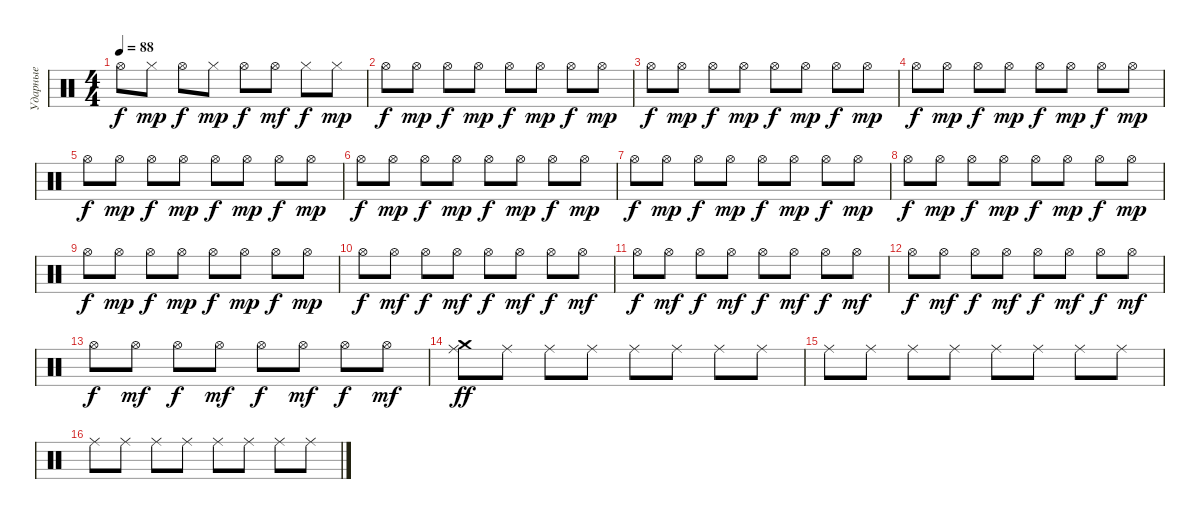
\track ("Ударные" "Ударные") {instrument percussion}
\staff {score}
\articulation defaults
\ts (4 4)
\tempo 88
\clef neutral
\ks c "Hi-Hat (open)".8{dy f} "Hi-Hat (closed)".8{dy mp} "Hi-Hat (open)".8{dy f} "Hi-Hat (closed)".8{dy mp} "Hi-Hat (open)".8{dy f} "Hi-Hat (open)".8{dy mf} "Hi-Hat (closed)".8{dy f} "Hi-Hat (closed)".8{dy mp}
|
"Hi-Hat (open)".8{dy f} "Hi-Hat (open)".8{dy mp} "Hi-Hat (open)".8{dy f} "Hi-Hat (open)".8{dy mp} "Hi-Hat (open)".8{dy f} "Hi-Hat (open)".8{dy mp} "Hi-Hat (open)".8{dy f} "Hi-Hat (open)".8{dy mp} |
"Hi-Hat (open)".8{dy f} "Hi-Hat (open)".8{dy mp} "Hi-Hat (open)".8{dy f} "Hi-Hat (open)".8{dy mp} "Hi-Hat (open)".8{dy f} "Hi-Hat (open)".8{dy mp} "Hi-Hat (open)".8{dy f} "Hi-Hat (open)".8{dy mp} |
"Hi-Hat (open)".8{dy f} "Hi-Hat (open)".8{dy mp} "Hi-Hat (open)".8{dy f} "Hi-Hat (open)".8{dy mp} "Hi-Hat (open)".8{dy f} "Hi-Hat (open)".8{dy mp} "Hi-Hat (open)".8{dy f} "Hi-Hat (open)".8{dy mp} |
"Hi-Hat (open)".8{dy f} "Hi-Hat (open)".8{dy mp} "Hi-Hat (open)".8{dy f} "Hi-Hat (open)".8{dy mp} "Hi-Hat (open)".8{dy f} "Hi-Hat (open)".8{dy mp} "Hi-Hat (open)".8{dy f} "Hi-Hat (open)".8{dy mp} |
"Hi-Hat (open)".8{dy f} "Hi-Hat (open)".8{dy mp} "Hi-Hat (open)".8{dy f} "Hi-Hat (open)".8{dy mp} "Hi-Hat (open)".8{dy f} "Hi-Hat (open)".8{dy mp} "Hi-Hat (open)".8{dy f} "Hi-Hat (open)".8{dy mp} |
"Hi-Hat (open)".8{dy f} "Hi-Hat (open)".8{dy mp} "Hi-Hat (open)".8{dy f} "Hi-Hat (open)".8{dy mp} "Hi-Hat (open)".8{dy f} "Hi-Hat (open)".8{dy mp} "Hi-Hat (open)".8{dy f} "Hi-Hat (open)".8{dy mp} |
"Hi-Hat (open)".8{dy f} "Hi-Hat (open)".8{dy mp} "Hi-Hat (open)".8{dy f} "Hi-Hat (open)".8{dy mp} "Hi-Hat (open)".8{dy f} "Hi-Hat (open)".8{dy mp} "Hi-Hat (open)".8{dy f} "Hi-Hat (open)".8{dy mp} |
"Hi-Hat (open)".8{dy f} "Hi-Hat (open)".8{dy mp} "Hi-Hat (open)".8{dy f} "Hi-Hat (open)".8{dy mp} "Hi-Hat (open)".8{dy f} "Hi-Hat (open)".8{dy mp} "Hi-Hat (open)".8{dy f} "Hi-Hat (open)".8{dy mp} |
"Hi-Hat (open)".8{dy f} "Hi-Hat (open)".8{dy mf} "Hi-Hat (open)".8{dy f} "Hi-Hat (open)".8{dy mf} "Hi-Hat (open)".8{dy f} "Hi-Hat (open)".8{dy mf} "Hi-Hat (open)".8{dy f} "Hi-Hat (open)".8{dy mf} |
"Hi-Hat (open)".8{dy f} "Hi-Hat (open)".8{dy mf} "Hi-Hat (open)".8{dy f} "Hi-Hat (open)".8{dy mf} "Hi-Hat (open)".8{dy f} "Hi-Hat (open)".8{dy mf} "Hi-Hat (open)".8{dy f} "Hi-Hat (open)".8{dy mf} |
"Hi-Hat (open)".8{dy f} "Hi-Hat (open)".8{dy mf} "Hi-Hat (open)".8{dy f} "Hi-Hat (open)".8{dy mf} "Hi-Hat (open)".8{dy f} "Hi-Hat (open)".8{dy mf} "Hi-Hat (open)".8{dy f} "Hi-Hat (open)".8{dy mf} |
"Hi-Hat (open)".8{dy f} "Hi-Hat (open)".8{dy mf} "Hi-Hat (open)".8{dy f} "Hi-Hat (open)".8{dy mf} "Hi-Hat (open)".8{dy f} "Hi-Hat (open)".8{dy mf} "Hi-Hat (open)".8{dy f} "Hi-Hat (open)".8{dy mf} |
("Crash medium (hit)" "Ride (middle)").8{dy ff} "Ride (middle)".8 "Ride (middle)".8 "Ride (middle)".8 "Ride (middle)".8 "Ride (middle)".8 "Ride (middle)".8 "Ride (middle)".8 |
"Ride (middle)".8 "Ride (middle)".8 "Ride (middle)".8 "Ride (middle)".8 "Ride (middle)".8 "Ride (middle)".8 "Ride (middle)".8 "Ride (middle)".8 |
"Ride (middle)".8 "Ride (middle)".8 "Ride (middle)".8 "Ride (middle)".8 "Ride (middle)".8 "Ride (middle)".8 "Ride (middle)".8 "Ride (middle)".8
